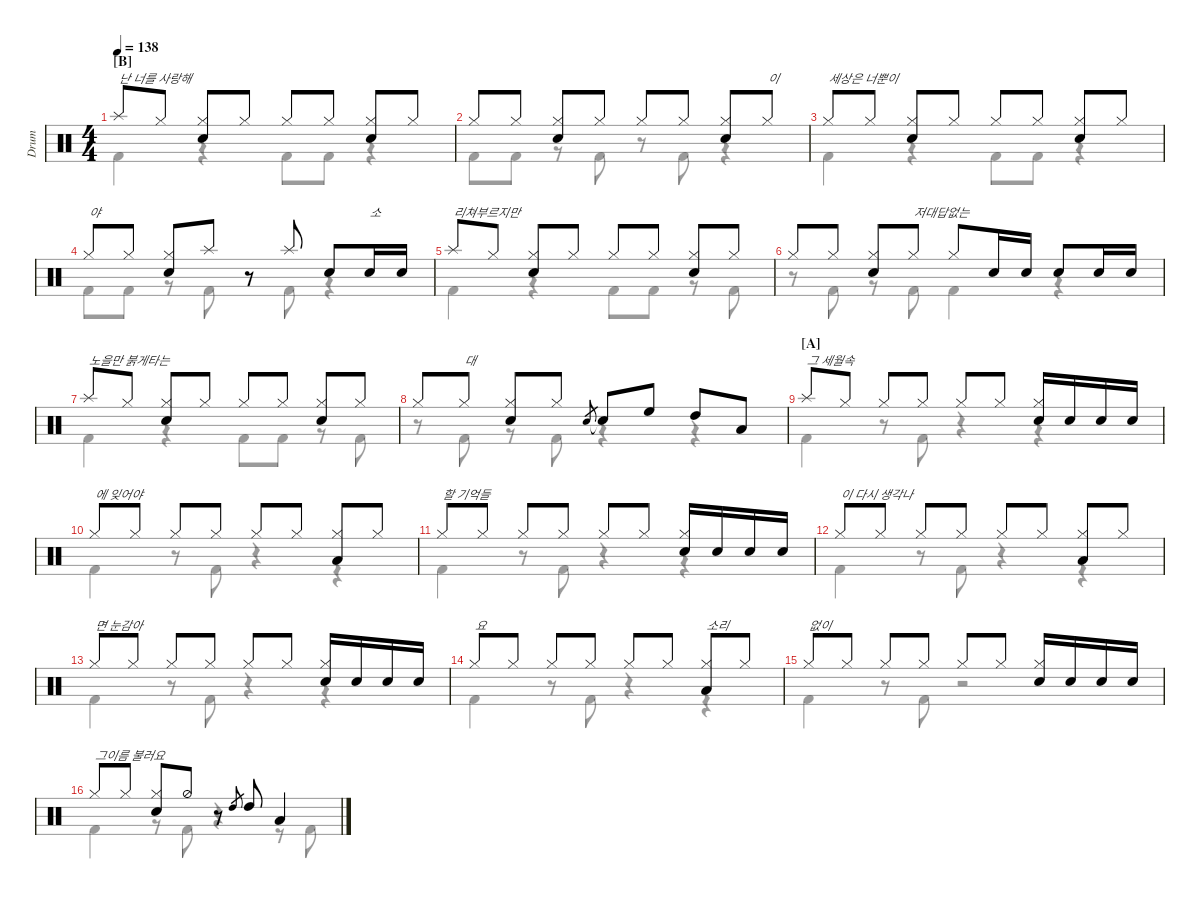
\defaultSystemsLayout 4
\hideDynamics
\bracketExtendMode nobrackets
\track ("Drumkit" "Drum") {instrument percussion}
\staff {score}
\articulation defaults
\voice
\ts (4 4)
\section ("B" "")
\tempo 138
\clef neutral
\ks c "Splash (hit)".8{txt "난 너를 사랑해" dy mf beam Up} "Hi-Hat (closed)".8{beam Up}
("Hi-Hat (closed)" "Snare (hit) 2").8{beam Up} "Hi-Hat (closed)".8{beam Up} "Hi-Hat (closed)".8{beam Up} "Hi-Hat (closed)".8{beam Up} ("Hi-Hat (closed)" "Snare (hit) 2").8{beam Up} "Hi-Hat (closed)".8{beam Up} |
"Hi-Hat (closed)".8{beam Up} "Hi-Hat (closed)".8{beam Up} ("Hi-Hat (closed)" "Snare (hit) 2").8{beam Up} "Hi-Hat (closed)".8{beam Up} "Hi-Hat (closed)".8{beam Up} "Hi-Hat (closed)".8{beam Up} ("Hi-Hat (closed)" "Snare (hit) 2").8{beam Up} "Hi-Hat (closed)".8{txt "이" beam Up} |
"Hi-Hat (closed)".8{txt "세상은 너뿐이" beam Up} "Hi-Hat (closed)".8{beam Up} ("Hi-Hat (closed)" "Snare (hit) 2").8{beam Up} "Hi-Hat (closed)".8{beam Up} "Hi-Hat (closed)".8{beam Up} "Hi-Hat (closed)".8{beam Up} ("Hi-Hat (closed)" "Snare (hit) 2").8{beam Up} "Hi-Hat (closed)".8{beam Up} |
"Hi-Hat (closed)".8{txt "야" beam Up} "Hi-Hat (closed)".8{beam Up} ("Hi-Hat (closed)" "Snare (hit) 2").8{beam Up} "Splash (hit)".8{beam Up} r.8{beam Up} "Splash (hit)".8{beam Up} "Snare (hit) 2".8{beam Up} "Snare (hit) 2".16{txt "소" beam Up} "Snare (hit) 2".16{beam Up} |
"Splash (hit)".8{txt "리쳐부르지만" beam Up} "Hi-Hat (closed)".8{beam Up} ("Hi-Hat (closed)" "Snare (hit) 2").8{beam Up} "Hi-Hat (closed)".8{beam Up} "Hi-Hat (closed)".8{beam Up} "Hi-Hat (closed)".8{beam Up} ("Hi-Hat (closed)" "Snare (hit) 2").8{beam Up} "Hi-Hat (closed)".8{beam Up} |
"Hi-Hat (closed)".8{beam Up} "Hi-Hat (closed)".8{beam Up} ("Hi-Hat (closed)" "Snare (hit) 2").8{beam Up} "Hi-Hat (closed)".8{txt "저대답없는" beam Up} "Hi-Hat (closed)".8{beam Up} "Snare (hit) 2".16{beam Up} "Snare (hit) 2".16{beam Up} "Snare (hit) 2".8{beam Up} "Snare (hit) 2".16{beam Up} "Snare (hit) 2".16{beam Up} |
"Splash (hit)".8{txt "노을만 붉게타는" beam Up} "Hi-Hat (closed)".8{beam Up} ("Hi-Hat (closed)" "Snare (hit) 2").8{beam Up} "Hi-Hat (closed)".8{beam Up} "Hi-Hat (closed)".8{beam Up} "Hi-Hat (closed)".8{beam Up} ("Hi-Hat (closed)" "Snare (hit) 2").8{beam Up} "Hi-Hat (closed)".8{beam Up} |
"Hi-Hat (closed)".8{beam Up} "Hi-Hat (closed)".8{txt "대" beam Up} ("Hi-Hat (closed)" "Snare (hit) 2").8{beam Up} "Hi-Hat (closed)".8{beam Up} "Snare (hit) 2".8{gr beam Up} "Snare (hit) 2"{t}.8{beam Up} "High Floor Tom (hit)".8{beam Up} "High Tom (hit)".8{beam Up} "Low Tom (hit)".8{beam Up} |
\section ("A" "")
"Splash (hit)".8{txt "그 세월속" beam Up} "Hi-Hat (closed)".8{beam Up} "Hi-Hat (closed)".8{beam Up} "Hi-Hat (closed)".8{beam Up} "Hi-Hat (closed)".8{beam Up} "Hi-Hat (closed)".8{beam Up} ("Hi-Hat (closed)" "Snare (hit) 2").16{beam Up} "Snare (hit) 2".16{beam Up} "Snare (hit) 2".16{beam Up} "Snare (hit) 2".16{beam Up} |
"Hi-Hat (closed)".8{txt "에 잊어야" beam Up} "Hi-Hat (closed)".8{beam Up} "Hi-Hat (closed)".8{beam Up} "Hi-Hat (closed)".8{beam Up} "Hi-Hat (closed)".8{beam Up} "Hi-Hat (closed)".8{beam Up} ("Hi-Hat (closed)" "Low Tom (hit)").8{beam Up} "Hi-Hat (closed)".8{beam Up} |
"Hi-Hat (closed)".8{txt "할 기억들" beam Up} "Hi-Hat (closed)".8{beam Up} "Hi-Hat (closed)".8{beam Up} "Hi-Hat (closed)".8{beam Up} "Hi-Hat (closed)".8{beam Up} "Hi-Hat (closed)".8{beam Up} ("Hi-Hat (closed)" "Snare (hit) 2").16{beam Up} "Snare (hit) 2".16{beam Up} "Snare (hit) 2".16{beam Up} "Snare (hit) 2".16{beam Up} |
"Hi-Hat (closed)".8{txt "이 다시 생각나" beam Up} "Hi-Hat (closed)".8{beam Up} "Hi-Hat (closed)".8{beam Up} "Hi-Hat (closed)".8{beam Up} "Hi-Hat (closed)".8{beam Up} "Hi-Hat (closed)".8{beam Up} ("Hi-Hat (closed)" "Low Tom (hit)").8{beam Up} "Hi-Hat (closed)".8{beam Up} |
"Hi-Hat (closed)".8{txt "면 눈감아" beam Up} "Hi-Hat (closed)".8{beam Up} "Hi-Hat (closed)".8{beam Up} "Hi-Hat (closed)".8{beam Up} "Hi-Hat (closed)".8{beam Up} "Hi-Hat (closed)".8{beam Up} ("Hi-Hat (closed)" "Snare (hit) 2").16{beam Up} "Snare (hit) 2".16{beam Up} "Snare (hit) 2".16{beam Up} "Snare (hit) 2".16{beam Up} |
"Hi-Hat (closed)".8{txt "요 " beam Up} "Hi-Hat (closed)".8{beam Up} "Hi-Hat (closed)".8{beam Up} "Hi-Hat (closed)".8{beam Up} "Hi-Hat (closed)".8{beam Up} "Hi-Hat (closed)".8{beam Up} ("Hi-Hat (closed)" "Low Tom (hit)").8{txt "소리" beam Up} "Hi-Hat (closed)".8{beam Up} |
"Hi-Hat (closed)".8{txt "없이" beam Up} "Hi-Hat (closed)".8{beam Up} "Hi-Hat (closed)".8{beam Up} "Hi-Hat (closed)".8{beam Up} "Hi-Hat (closed)".8{beam Up} "Hi-Hat (closed)".8{beam Up} ("Hi-Hat (closed)" "Snare (hit) 2").16{beam Up} "Snare (hit) 2".16{beam Up} "Snare (hit) 2".16{beam Up} "Snare (hit) 2".16{beam Up} |
"Hi-Hat (closed)".8{txt "그이름 불러요" beam Up} "Hi-Hat (closed)".8{beam Up} ("Hi-Hat (closed)" "Snare (hit) 2").8{beam Up} "Hi-Hat (half)".8{beam Up} r.8{beam Up} "High Tom (hit)".8{gr beam Up} "High Tom (hit)".8{beam Up} "Low Tom (hit)".4{beam Up}
\voice
\clef neutral
\ottava regular
\simile none
\ks c
|
|
|
|
|
|
|
|
|
|
|
|
|
|
|
\voice
\clef neutral
\ottava regular
\simile none
\ks c "Kick (hit) 2".4{dy mf beam Down}
r.4{beam Down} "Kick (hit) 2".8{beam Down} "Kick (hit) 2".8{beam Down} r.4{beam Down} |
"Kick (hit) 2".8{beam Down} "Kick (hit) 2".8{beam Down} r.8{beam Down} "Kick (hit) 2".8{beam Down} r.8{beam Down} "Kick (hit) 2".8{beam Down} r.4{beam Down} |
"Kick (hit) 2".4{beam Down} r.4{beam Down} "Kick (hit) 2".8{beam Down} "Kick (hit) 2".8{beam Down} r.4{beam Down} |
"Kick (hit) 2".8{beam Down} "Kick (hit) 2".8{beam Down} r.8{beam Down} "Kick (hit) 2".8{beam Down} r.8{beam Down} "Kick (hit) 2".8{beam Down} r.4{beam Down} |
"Kick (hit) 2".4{beam Down} r.4{beam Down} "Kick (hit) 2".8{beam Down} "Kick (hit) 2".8{beam Down} r.8{beam Down} "Kick (hit) 2".8{beam Down} |
r.8{beam Down} "Kick (hit) 2".8{beam Down} r.8{beam Down} "Kick (hit) 2".8{beam Down} "Kick (hit) 2".4{beam Down} r.4{beam Down} |
"Kick (hit) 2".4{beam Down} r.4{beam Down} "Kick (hit) 2".8{beam Down} "Kick (hit) 2".8{beam Down} r.8{beam Down} "Kick (hit) 2".8{beam Down} |
r.8{beam Down} "Kick (hit) 2".8{beam Down} r.8{beam Down} "Kick (hit) 2".8{beam Down} r.4{beam Down} r.4{beam Down} |
"Kick (hit) 2".4{beam Down} r.8{beam Down} "Kick (hit) 2".8{beam Down} r.4{beam Down} r.4{beam Down} |
"Kick (hit) 2".4{beam Down} r.8{beam Down} "Kick (hit) 2".8{beam Down} r.4{beam Down} r.4{beam Down} |
"Kick (hit) 2".4{beam Down} r.8{beam Down} "Kick (hit) 2".8{beam Down} r.4{beam Down} r.4{beam Down} |
"Kick (hit) 2".4{beam Down} r.8{beam Down} "Kick (hit) 2".8{beam Down} r.4{beam Down} r.4{beam Down} |
"Kick (hit) 2".4{beam Down} r.8{beam Down} "Kick (hit) 2".8{beam Down} r.4{beam Down} r.4{beam Down} |
"Kick (hit) 2".4{beam Down} r.8{beam Down} "Kick (hit) 2".8{beam Down} r.4{beam Down} r.4{beam Down} |
"Kick (hit) 2".4{beam Down} r.8{beam Down} "Kick (hit) 2".8{beam Down} r.2{beam Down} |
"Kick (hit) 2".4{beam Down} r.8{beam Down} "Kick (hit) 2".8{beam Down} r.4{beam Down} r.8{beam Down} "Kick (hit) 2".8{beam Down}
